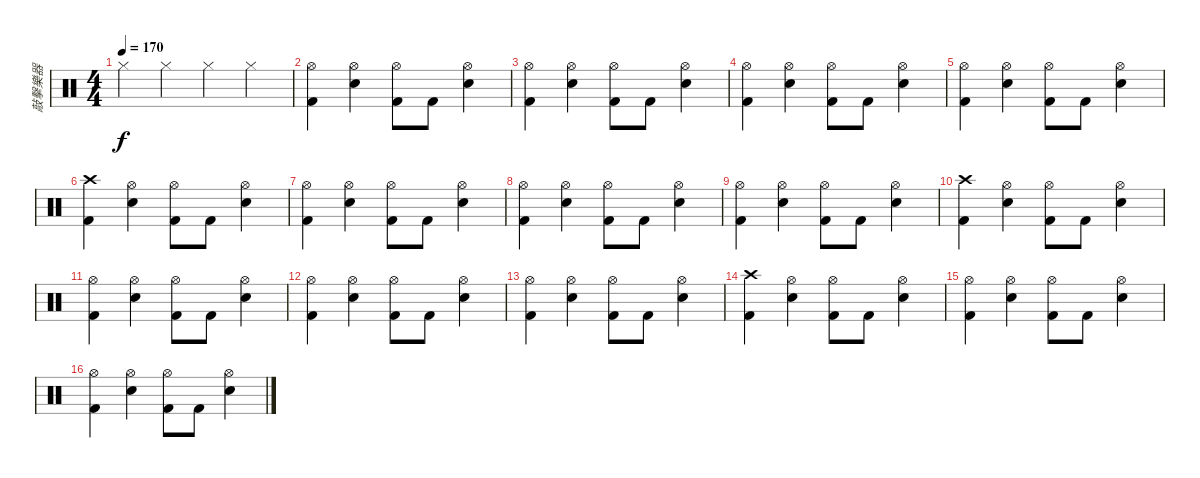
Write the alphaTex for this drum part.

\track ("敲擊樂器" "敲擊樂器") {instrument percussion}
\staff {score}
\articulation defaults
\ts (4 4)
\tempo 170
\clef neutral
\ks c "Hi-Hat (closed)".4{dy f} "Hi-Hat (closed)".4 "Hi-Hat (closed)".4 "Hi-Hat (closed)".4
|
("Hi-Hat (open)" "Kick (hit) 2").4 ("Hi-Hat (open)" "Snare (hit) 2").4 ("Hi-Hat (open)" "Kick (hit) 2").8 "Kick (hit) 2".8 ("Hi-Hat (open)" "Snare (hit) 2").4 |
("Hi-Hat (open)" "Kick (hit) 2").4 ("Hi-Hat (open)" "Snare (hit) 2").4 ("Hi-Hat (open)" "Kick (hit) 2").8 "Kick (hit) 2".8 ("Hi-Hat (open)" "Snare (hit) 2").4 |
("Hi-Hat (open)" "Kick (hit) 2").4 ("Hi-Hat (open)" "Snare (hit) 2").4 ("Hi-Hat (open)" "Kick (hit) 2").8 "Kick (hit) 2".8 ("Hi-Hat (open)" "Snare (hit) 2").4 |
("Hi-Hat (open)" "Kick (hit) 2").4 ("Hi-Hat (open)" "Snare (hit) 2").4 ("Hi-Hat (open)" "Kick (hit) 2").8 "Kick (hit) 2".8 ("Hi-Hat (open)" "Snare (hit) 2").4 |
("Crash high (hit)" "Kick (hit) 2").4 ("Hi-Hat (open)" "Snare (hit) 2").4 ("Hi-Hat (open)" "Kick (hit) 2").8 "Kick (hit) 2".8 ("Hi-Hat (open)" "Snare (hit) 2").4 |
("Hi-Hat (open)" "Kick (hit) 2").4 ("Hi-Hat (open)" "Snare (hit) 2").4 ("Hi-Hat (open)" "Kick (hit) 2").8 "Kick (hit) 2".8 ("Hi-Hat (open)" "Snare (hit) 2").4 |
("Hi-Hat (open)" "Kick (hit) 2").4 ("Hi-Hat (open)" "Snare (hit) 2").4 ("Hi-Hat (open)" "Kick (hit) 2").8 "Kick (hit) 2".8 ("Hi-Hat (open)" "Snare (hit) 2").4 |
("Hi-Hat (open)" "Kick (hit) 2").4 ("Hi-Hat (open)" "Snare (hit) 2").4 ("Hi-Hat (open)" "Kick (hit) 2").8 "Kick (hit) 2".8 ("Hi-Hat (open)" "Snare (hit) 2").4 |
("Crash high (hit)" "Kick (hit) 2").4 ("Hi-Hat (open)" "Snare (hit) 2").4 ("Hi-Hat (open)" "Kick (hit) 2").8 "Kick (hit) 2".8 ("Hi-Hat (open)" "Snare (hit) 2").4 |
("Hi-Hat (open)" "Kick (hit) 2").4 ("Hi-Hat (open)" "Snare (hit) 2").4 ("Hi-Hat (open)" "Kick (hit) 2").8 "Kick (hit) 2".8 ("Hi-Hat (open)" "Snare (hit) 2").4 |
("Hi-Hat (open)" "Kick (hit) 2").4 ("Hi-Hat (open)" "Snare (hit) 2").4 ("Hi-Hat (open)" "Kick (hit) 2").8 "Kick (hit) 2".8 ("Hi-Hat (open)" "Snare (hit) 2").4 |
("Hi-Hat (open)" "Kick (hit) 2").4 ("Hi-Hat (open)" "Snare (hit) 2").4 ("Hi-Hat (open)" "Kick (hit) 2").8 "Kick (hit) 2".8 ("Hi-Hat (open)" "Snare (hit) 2").4 |
("Crash high (hit)" "Kick (hit) 2").4 ("Hi-Hat (open)" "Snare (hit) 2").4 ("Hi-Hat (open)" "Kick (hit) 2").8 "Kick (hit) 2".8 ("Hi-Hat (open)" "Snare (hit) 2").4 |
("Hi-Hat (open)" "Kick (hit) 2").4 ("Hi-Hat (open)" "Snare (hit) 2").4 ("Hi-Hat (open)" "Kick (hit) 2").8 "Kick (hit) 2".8 ("Hi-Hat (open)" "Snare (hit) 2").4 |
("Hi-Hat (open)" "Kick (hit) 2").4 ("Hi-Hat (open)" "Snare (hit) 2").4 ("Hi-Hat (open)" "Kick (hit) 2").8 "Kick (hit) 2".8 ("Hi-Hat (open)" "Snare (hit) 2").4
